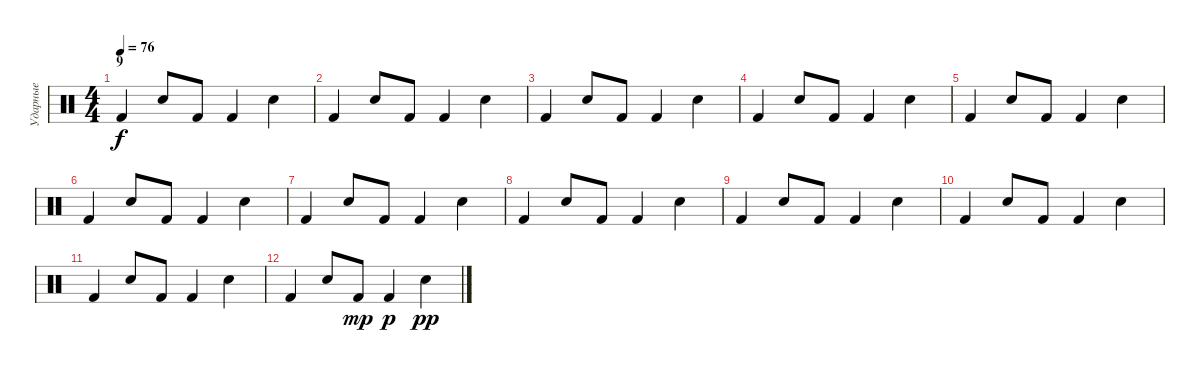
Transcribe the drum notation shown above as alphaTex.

\track ("Ударные" "Ударные") {instrument percussion}
\staff {score}
\articulation defaults
\ts (4 4)
\section ("" "9")
\tempo 76
\clef neutral
\ks c "Kick (hit) 2".4{dy f} "Snare (hit) 2".8 "Kick (hit) 2".8 "Kick (hit) 2".4 "Snare (hit) 2".4
|
"Kick (hit) 2".4 "Snare (hit) 2".8 "Kick (hit) 2".8 "Kick (hit) 2".4 "Snare (hit) 2".4 |
"Kick (hit) 2".4 "Snare (hit) 2".8 "Kick (hit) 2".8 "Kick (hit) 2".4 "Snare (hit) 2".4 |
"Kick (hit) 2".4 "Snare (hit) 2".8 "Kick (hit) 2".8 "Kick (hit) 2".4 "Snare (hit) 2".4 |
"Kick (hit) 2".4 "Snare (hit) 2".8 "Kick (hit) 2".8 "Kick (hit) 2".4 "Snare (hit) 2".4 |
"Kick (hit) 2".4 "Snare (hit) 2".8 "Kick (hit) 2".8 "Kick (hit) 2".4 "Snare (hit) 2".4 |
"Kick (hit) 2".4 "Snare (hit) 2".8 "Kick (hit) 2".8 "Kick (hit) 2".4 "Snare (hit) 2".4 |
"Kick (hit) 2".4 "Snare (hit) 2".8 "Kick (hit) 2".8 "Kick (hit) 2".4 "Snare (hit) 2".4 |
"Kick (hit) 2".4 "Snare (hit) 2".8 "Kick (hit) 2".8 "Kick (hit) 2".4 "Snare (hit) 2".4 |
"Kick (hit) 2".4 "Snare (hit) 2".8 "Kick (hit) 2".8 "Kick (hit) 2".4 "Snare (hit) 2".4 |
"Kick (hit) 2".4 "Snare (hit) 2".8 "Kick (hit) 2".8 "Kick (hit) 2".4 "Snare (hit) 2".4 |
"Kick (hit) 2".4 "Snare (hit) 2".8 "Kick (hit) 2".8{dy mp} "Kick (hit) 2".4{dy p} "Snare (hit) 2".4{dy pp}
